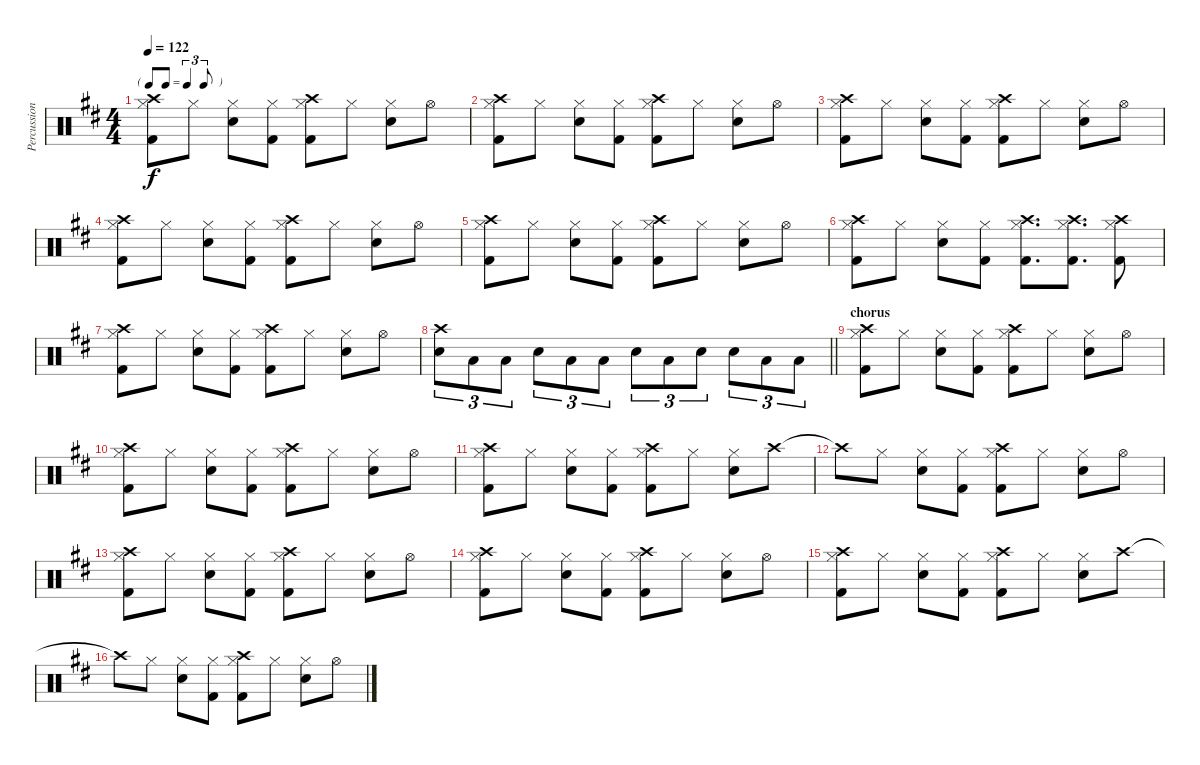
\track ("Percussioni" "Percussion") {instrument percussion}
\staff {score}
\articulation defaults
\ts (4 4)
\tf triplet8th
\tempo 122
\clef neutral
\ks d
("Hi-Hat (closed)" "Kick (hit) 2" "Crash high (hit)").8{dy f} "Hi-Hat (closed)".8 ("Hi-Hat (closed)" "Electric Snare (hit)").8 ("Hi-Hat (closed)" "Kick (hit) 2").8 ("Hi-Hat (closed)" "Kick (hit) 2" "Crash high (hit)").8 "Hi-Hat (closed)".8 ("Hi-Hat (closed)" "Electric Snare (hit)").8 "Hi-Hat (open)".8 |
("Hi-Hat (closed)" "Kick (hit) 2" "Crash high (hit)").8 "Hi-Hat (closed)".8 ("Hi-Hat (closed)" "Electric Snare (hit)").8 ("Hi-Hat (closed)" "Kick (hit) 2").8 ("Hi-Hat (closed)" "Kick (hit) 2" "Crash high (hit)").8 "Hi-Hat (closed)".8 ("Hi-Hat (closed)" "Electric Snare (hit)").8 "Hi-Hat (open)".8 |
("Hi-Hat (closed)" "Kick (hit) 2" "Crash high (hit)").8 "Hi-Hat (closed)".8 ("Hi-Hat (closed)" "Electric Snare (hit)").8 ("Hi-Hat (closed)" "Kick (hit) 2").8 ("Hi-Hat (closed)" "Kick (hit) 2" "Crash high (hit)").8 "Hi-Hat (closed)".8 ("Hi-Hat (closed)" "Electric Snare (hit)").8 "Hi-Hat (open)".8 |
("Hi-Hat (closed)" "Kick (hit) 2" "Crash high (hit)").8 "Hi-Hat (closed)".8 ("Hi-Hat (closed)" "Electric Snare (hit)").8 ("Hi-Hat (closed)" "Kick (hit) 2").8 ("Hi-Hat (closed)" "Kick (hit) 2" "Crash high (hit)").8 "Hi-Hat (closed)".8 ("Hi-Hat (closed)" "Electric Snare (hit)").8 "Hi-Hat (open)".8 |
("Hi-Hat (closed)" "Kick (hit) 2" "Crash high (hit)").8 "Hi-Hat (closed)".8 ("Hi-Hat (closed)" "Electric Snare (hit)").8 ("Hi-Hat (closed)" "Kick (hit) 2").8 ("Hi-Hat (closed)" "Kick (hit) 2" "Crash high (hit)").8 "Hi-Hat (closed)".8 ("Hi-Hat (closed)" "Electric Snare (hit)").8 "Hi-Hat (open)".8 |
("Hi-Hat (closed)" "Kick (hit) 2" "Crash high (hit)").8 "Hi-Hat (closed)".8 ("Hi-Hat (closed)" "Electric Snare (hit)").8 ("Hi-Hat (closed)" "Kick (hit) 2").8 ("Hi-Hat (closed)" "Kick (hit) 2" "Crash high (hit)").8{d} ("Hi-Hat (closed)" "Kick (hit) 2" "Crash high (hit)").8{d} ("Hi-Hat (closed)" "Kick (hit) 2" "Crash high (hit)").8 |
("Hi-Hat (closed)" "Kick (hit) 2" "Crash high (hit)").8 "Hi-Hat (closed)".8 ("Hi-Hat (closed)" "Electric Snare (hit)").8 ("Hi-Hat (closed)" "Kick (hit) 2").8 ("Hi-Hat (closed)" "Kick (hit) 2" "Crash high (hit)").8 "Hi-Hat (closed)".8 ("Hi-Hat (closed)" "Electric Snare (hit)").8 "Hi-Hat (open)".8 |
\barLineRight lightlight
("Electric Snare (hit)" "Crash high (hit)").8{tu (3 2)} "Low Tom (hit)".8{tu (3 2)} "Low Tom (hit)".8{tu (3 2)} "Electric Snare (hit)".8{tu (3 2)} "Low Tom (hit)".8{tu (3 2)} "Low Tom (hit)".8{tu (3 2)} "Electric Snare (hit)".8{tu (3 2)} "Low Tom (hit)".8{tu (3 2)} "Electric Snare (hit)".8{tu (3 2)} "Electric Snare (hit)".8{tu (3 2)} "Low Tom (hit)".8{tu (3 2)} "Low Tom (hit)".8{tu (3 2)} |
\section ("" "chorus")
("Hi-Hat (closed)" "Kick (hit) 2" "Crash high (hit)").8 "Hi-Hat (closed)".8 ("Hi-Hat (closed)" "Electric Snare (hit)").8 ("Hi-Hat (closed)" "Kick (hit) 2").8 ("Hi-Hat (closed)" "Kick (hit) 2" "Crash high (hit)").8 "Hi-Hat (closed)".8 ("Hi-Hat (closed)" "Electric Snare (hit)").8 "Hi-Hat (open)".8 |
("Hi-Hat (closed)" "Kick (hit) 2" "Crash high (hit)").8 "Hi-Hat (closed)".8 ("Hi-Hat (closed)" "Electric Snare (hit)").8 ("Hi-Hat (closed)" "Kick (hit) 2").8 ("Hi-Hat (closed)" "Kick (hit) 2" "Crash high (hit)").8 "Hi-Hat (closed)".8 ("Hi-Hat (closed)" "Electric Snare (hit)").8 "Hi-Hat (open)".8 |
("Hi-Hat (closed)" "Kick (hit) 2" "Crash high (hit)").8 "Hi-Hat (closed)".8 ("Hi-Hat (closed)" "Electric Snare (hit)").8 ("Hi-Hat (closed)" "Kick (hit) 2").8 ("Hi-Hat (closed)" "Kick (hit) 2" "Crash high (hit)").8 "Hi-Hat (closed)".8 ("Hi-Hat (closed)" "Electric Snare (hit)").8 "Crash high (hit)".8 |
"Crash high (hit)"{t}.8 "Hi-Hat (closed)".8 ("Hi-Hat (closed)" "Electric Snare (hit)").8 ("Hi-Hat (closed)" "Kick (hit) 2").8 ("Hi-Hat (closed)" "Kick (hit) 2" "Crash high (hit)").8 "Hi-Hat (closed)".8 ("Hi-Hat (closed)" "Electric Snare (hit)").8 "Hi-Hat (open)".8 |
("Hi-Hat (closed)" "Kick (hit) 2" "Crash high (hit)").8 "Hi-Hat (closed)".8 ("Hi-Hat (closed)" "Electric Snare (hit)").8 ("Hi-Hat (closed)" "Kick (hit) 2").8 ("Hi-Hat (closed)" "Kick (hit) 2" "Crash high (hit)").8 "Hi-Hat (closed)".8 ("Hi-Hat (closed)" "Electric Snare (hit)").8 "Hi-Hat (open)".8 |
("Hi-Hat (closed)" "Kick (hit) 2" "Crash high (hit)").8 "Hi-Hat (closed)".8 ("Hi-Hat (closed)" "Electric Snare (hit)").8 ("Hi-Hat (closed)" "Kick (hit) 2").8 ("Hi-Hat (closed)" "Kick (hit) 2" "Crash high (hit)").8 "Hi-Hat (closed)".8 ("Hi-Hat (closed)" "Electric Snare (hit)").8 "Hi-Hat (open)".8 |
("Hi-Hat (closed)" "Kick (hit) 2" "Crash high (hit)").8 "Hi-Hat (closed)".8 ("Hi-Hat (closed)" "Electric Snare (hit)").8 ("Hi-Hat (closed)" "Kick (hit) 2").8 ("Hi-Hat (closed)" "Kick (hit) 2" "Crash high (hit)").8 "Hi-Hat (closed)".8 ("Hi-Hat (closed)" "Electric Snare (hit)").8 "Crash high (hit)".8 |
"Crash high (hit)"{t}.8 "Hi-Hat (closed)".8 ("Hi-Hat (closed)" "Electric Snare (hit)").8 ("Hi-Hat (closed)" "Kick (hit) 2").8 ("Hi-Hat (closed)" "Kick (hit) 2" "Crash high (hit)").8 "Hi-Hat (closed)".8 ("Hi-Hat (closed)" "Electric Snare (hit)").8 "Hi-Hat (open)".8
